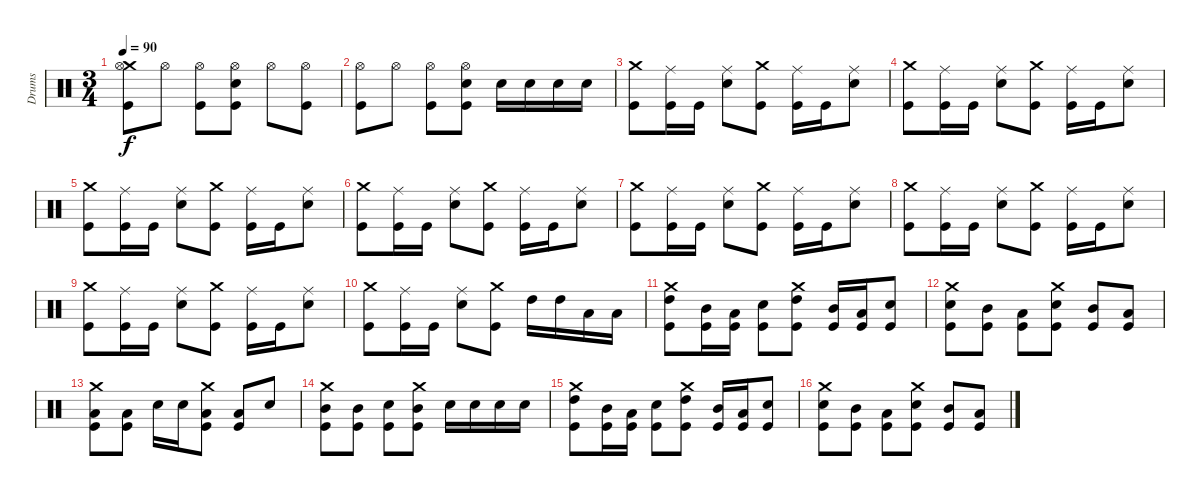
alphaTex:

\track ("Drums" "Drums") {instrument percussion}
\staff {score}
\articulation defaults
\ts (3 4)
\tempo 90
\clef neutral
\ks c
("Crash medium (hit)" "Hi-Hat (open)" "Kick (hit)").8{dy f} "Hi-Hat (open)".8 ("Hi-Hat (open)" "Kick (hit)").8 ("Hi-Hat (open)" "Snare (hit) 2" "Kick (hit)").8 "Hi-Hat (open)".8 ("Hi-Hat (open)" "Kick (hit)").8 |
("Hi-Hat (open)" "Kick (hit)").8 "Hi-Hat (open)".8 ("Hi-Hat (open)" "Kick (hit)").8 ("Hi-Hat (open)" "Snare (hit) 2" "Kick (hit)").8 "Snare (hit) 2".16 "Snare (hit) 2".16 "Snare (hit) 2".16 "Snare (hit) 2".16 |
("Crash medium (hit)" "Kick (hit)").8 ("Ride (middle)" "Kick (hit)").16 "Kick (hit)".16 ("Ride (middle)" "Snare (hit) 2").8 ("Crash medium (hit)" "Kick (hit)").8 ("Ride (middle)" "Kick (hit)").16 "Kick (hit)".16 ("Ride (middle)" "Snare (hit) 2").8 |
("Crash medium (hit)" "Kick (hit)").8 ("Ride (middle)" "Kick (hit)").16 "Kick (hit)".16 ("Ride (middle)" "Snare (hit) 2").8 ("Crash medium (hit)" "Kick (hit)").8 ("Ride (middle)" "Kick (hit)").16 "Kick (hit)".16 ("Ride (middle)" "Snare (hit) 2").8 |
("Crash medium (hit)" "Kick (hit)").8 ("Ride (middle)" "Kick (hit)").16 "Kick (hit)".16 ("Ride (middle)" "Snare (hit) 2").8 ("Crash medium (hit)" "Kick (hit)").8 ("Ride (middle)" "Kick (hit)").16 "Kick (hit)".16 ("Ride (middle)" "Snare (hit) 2").8 |
("Crash medium (hit)" "Kick (hit)").8 ("Ride (middle)" "Kick (hit)").16 "Kick (hit)".16 ("Ride (middle)" "Snare (hit) 2").8 ("Crash medium (hit)" "Kick (hit)").8 ("Ride (middle)" "Kick (hit)").16 "Kick (hit)".16 ("Ride (middle)" "Snare (hit) 2").8 |
("Crash medium (hit)" "Kick (hit)").8 ("Ride (middle)" "Kick (hit)").16 "Kick (hit)".16 ("Ride (middle)" "Snare (hit) 2").8 ("Crash medium (hit)" "Kick (hit)").8 ("Ride (middle)" "Kick (hit)").16 "Kick (hit)".16 ("Ride (middle)" "Snare (hit) 2").8 |
("Crash medium (hit)" "Kick (hit)").8 ("Ride (middle)" "Kick (hit)").16 "Kick (hit)".16 ("Ride (middle)" "Snare (hit) 2").8 ("Crash medium (hit)" "Kick (hit)").8 ("Ride (middle)" "Kick (hit)").16 "Kick (hit)".16 ("Ride (middle)" "Snare (hit) 2").8 |
("Crash medium (hit)" "Kick (hit)").8 ("Ride (middle)" "Kick (hit)").16 "Kick (hit)".16 ("Ride (middle)" "Snare (hit) 2").8 ("Crash medium (hit)" "Kick (hit)").8 ("Ride (middle)" "Kick (hit)").16 "Kick (hit)".16 ("Ride (middle)" "Snare (hit) 2").8 |
("Crash medium (hit)" "Kick (hit)").8 ("Ride (middle)" "Kick (hit)").16 "Kick (hit)".16 ("Ride (middle)" "Snare (hit) 2").8 ("Crash medium (hit)" "Kick (hit)").8 "High Tom (hit)".16 "High Tom (hit)".16 "Low Tom (hit)".16 "Low Tom (hit)".16 |
("Crash medium (hit)" "High Tom (hit)" "Kick (hit)").8 ("Mid Tom (hit)" "Kick (hit)").16 ("Low Tom (hit)" "Kick (hit)").16 ("Snare (hit) 2" "Kick (hit)").8 ("Crash medium (hit)" "High Tom (hit)" "Kick (hit)").8 ("Mid Tom (hit)" "Kick (hit)").16 ("Low Tom (hit)" "Kick (hit)").16 ("Snare (hit) 2" "Kick (hit)").8 |
("Crash medium (hit)" "Snare (hit) 2" "Kick (hit)").8 ("Mid Tom (hit)" "Kick (hit)").8 ("Low Tom (hit)" "Kick (hit)").8 ("Crash medium (hit)" "Snare (hit) 2" "Kick (hit)").8 ("Mid Tom (hit)" "Kick (hit)").8 ("Low Tom (hit)" "Kick (hit)").8 |
("Crash medium (hit)" "Low Tom (hit)" "Kick (hit)").8 ("Low Tom (hit)" "Kick (hit)").8 "Snare (hit) 2".16 "Snare (hit) 2".16 ("Crash medium (hit)" "Low Tom (hit)" "Kick (hit)").8 ("Low Tom (hit)" "Kick (hit)").8 "Snare (hit) 2".8 |
("Crash medium (hit)" "Mid Tom (hit)" "Kick (hit)").8 ("Mid Tom (hit)" "Kick (hit)").8 ("Snare (hit) 2" "Kick (hit)").8 ("Crash medium (hit)" "Mid Tom (hit)" "Kick (hit)").8 "Snare (hit) 2".16 "Snare (hit) 2".16 "Snare (hit) 2".16 "Snare (hit) 2".16 |
("Crash medium (hit)" "High Tom (hit)" "Kick (hit)").8 ("Mid Tom (hit)" "Kick (hit)").16 ("Low Tom (hit)" "Kick (hit)").16 ("Snare (hit) 2" "Kick (hit)").8 ("Crash medium (hit)" "High Tom (hit)" "Kick (hit)").8 ("Mid Tom (hit)" "Kick (hit)").16 ("Low Tom (hit)" "Kick (hit)").16 ("Snare (hit) 2" "Kick (hit)").8 |
("Crash medium (hit)" "Snare (hit) 2" "Kick (hit)").8 ("Mid Tom (hit)" "Kick (hit)").8 ("Low Tom (hit)" "Kick (hit)").8 ("Crash medium (hit)" "Snare (hit) 2" "Kick (hit)").8 ("Mid Tom (hit)" "Kick (hit)").8 ("Low Tom (hit)" "Kick (hit)").8
